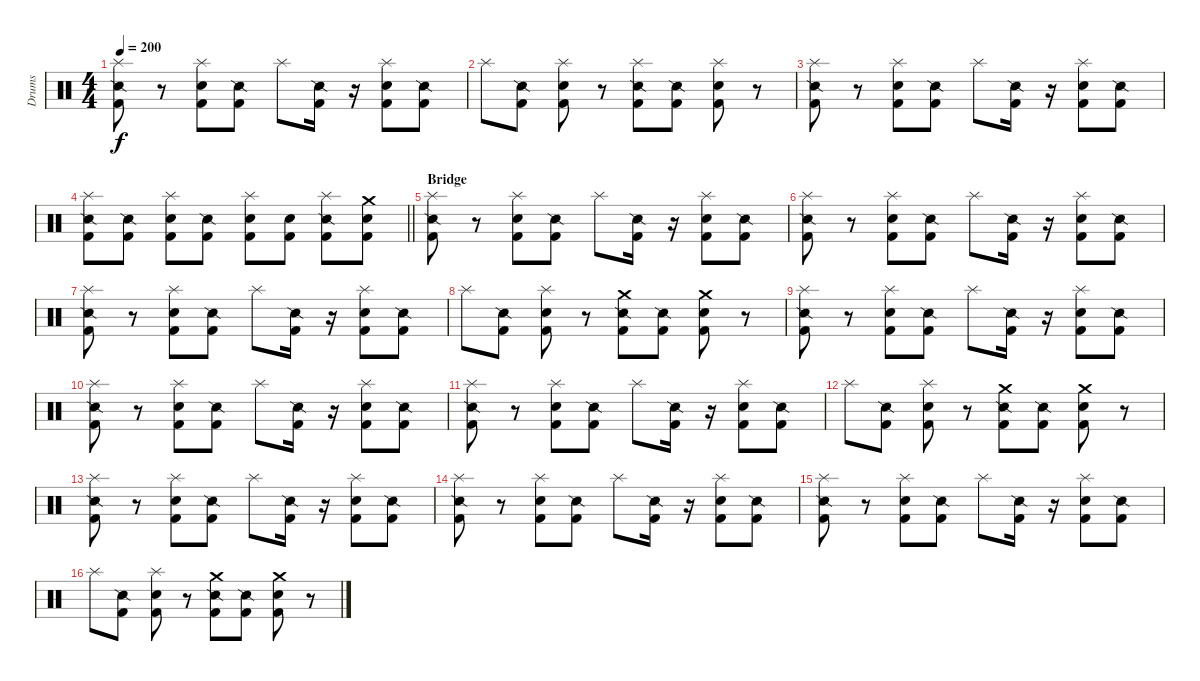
\track ("Drums" "Drums") {instrument percussion}
\staff {score}
\articulation defaults
\ts (4 4)
\tempo 200
\clef neutral
\ks c
("Splash (hit)" "Snare (side stick) 2" "Kick (hit) 2").8{dy f} r.8 ("Splash (hit)" "Snare (hit) 2" "Kick (hit) 2").8 ("Snare (side stick) 2" "Kick (hit) 2").8 "Splash (hit)".8 ("Snare (side stick) 2" "Kick (hit) 2").16 r.16 ("Splash (hit)" "Snare (hit) 2" "Kick (hit) 2").8 ("Snare (side stick) 2" "Kick (hit) 2").8 |
"Splash (hit)".8 ("Snare (side stick) 2" "Kick (hit) 2").8 ("Splash (hit)" "Snare (hit) 2" "Kick (hit) 2").8 r.8 ("Splash (hit)" "Snare (side stick) 2" "Kick (hit) 2").8 ("Snare (side stick) 2" "Kick (hit) 2").8 ("Splash (hit)" "Snare (hit) 2" "Kick (hit) 2").8 r.8 |
("Splash (hit)" "Snare (side stick) 2" "Kick (hit) 2").8 r.8 ("Splash (hit)" "Snare (hit) 2" "Kick (hit) 2").8 ("Snare (side stick) 2" "Kick (hit) 2").8 "Splash (hit)".8 ("Snare (side stick) 2" "Kick (hit) 2").16 r.16 ("Splash (hit)" "Snare (hit) 2" "Kick (hit) 2").8 ("Snare (side stick) 2" "Kick (hit) 2").8 |
\barLineRight lightlight
("Splash (hit)" "Snare (side stick) 2" "Kick (hit) 2").8 ("Snare (side stick) 2" "Kick (hit) 2").8 ("Splash (hit)" "Kick (hit) 2" "Snare (hit) 2").8 ("Snare (side stick) 2" "Kick (hit) 2").8 ("Splash (hit)" "Snare (hit) 2" "Kick (hit) 2").8 ("Snare (hit) 2" "Kick (hit) 2").8 ("Splash (hit)" "Snare (side stick) 2" "Kick (hit) 2").8 ("Crash medium (hit)" "Snare (hit) 2" "Kick (hit) 2").8 |
\section ("" "Bridge")
("Splash (hit)" "Snare (side stick) 2" "Kick (hit) 2").8 r.8 ("Splash (hit)" "Snare (hit) 2" "Kick (hit) 2").8 ("Snare (side stick) 2" "Kick (hit) 2").8 "Splash (hit)".8 ("Snare (side stick) 2" "Kick (hit) 2").16 r.16 ("Splash (hit)" "Snare (hit) 2" "Kick (hit) 2").8 ("Snare (side stick) 2" "Kick (hit) 2").8 |
("Splash (hit)" "Snare (side stick) 2" "Kick (hit) 2").8 r.8 ("Splash (hit)" "Snare (hit) 2" "Kick (hit) 2").8 ("Snare (side stick) 2" "Kick (hit) 2").8 "Splash (hit)".8 ("Snare (side stick) 2" "Kick (hit) 2").16 r.16 ("Splash (hit)" "Snare (hit) 2" "Kick (hit) 2").8 ("Snare (side stick) 2" "Kick (hit) 2").8 |
("Splash (hit)" "Snare (side stick) 2" "Kick (hit) 2").8 r.8 ("Splash (hit)" "Snare (hit) 2" "Kick (hit) 2").8 ("Snare (side stick) 2" "Kick (hit) 2").8 "Splash (hit)".8 ("Snare (side stick) 2" "Kick (hit) 2").16 r.16 ("Splash (hit)" "Snare (hit) 2" "Kick (hit) 2").8 ("Snare (side stick) 2" "Kick (hit) 2").8 |
"Splash (hit)".8 ("Snare (side stick) 2" "Kick (hit) 2").8 ("Splash (hit)" "Snare (hit) 2" "Kick (hit) 2").8 r.8 ("Crash medium (hit)" "Snare (side stick) 2" "Kick (hit) 2").8 ("Snare (side stick) 2" "Kick (hit) 2").8 ("Crash medium (hit)" "Snare (hit) 2" "Kick (hit) 2").8 r.8 |
("Splash (hit)" "Snare (side stick) 2" "Kick (hit) 2").8 r.8 ("Splash (hit)" "Snare (hit) 2" "Kick (hit) 2").8 ("Snare (side stick) 2" "Kick (hit) 2").8 "Splash (hit)".8 ("Snare (side stick) 2" "Kick (hit) 2").16 r.16 ("Splash (hit)" "Snare (hit) 2" "Kick (hit) 2").8 ("Snare (side stick) 2" "Kick (hit) 2").8 |
("Splash (hit)" "Snare (side stick) 2" "Kick (hit) 2").8 r.8 ("Splash (hit)" "Snare (hit) 2" "Kick (hit) 2").8 ("Snare (side stick) 2" "Kick (hit) 2").8 "Splash (hit)".8 ("Snare (side stick) 2" "Kick (hit) 2").16 r.16 ("Splash (hit)" "Snare (hit) 2" "Kick (hit) 2").8 ("Snare (side stick) 2" "Kick (hit) 2").8 |
("Splash (hit)" "Snare (side stick) 2" "Kick (hit) 2").8 r.8 ("Splash (hit)" "Snare (hit) 2" "Kick (hit) 2").8 ("Snare (side stick) 2" "Kick (hit) 2").8 "Splash (hit)".8 ("Snare (side stick) 2" "Kick (hit) 2").16 r.16 ("Splash (hit)" "Snare (hit) 2" "Kick (hit) 2").8 ("Snare (side stick) 2" "Kick (hit) 2").8 |
"Splash (hit)".8 ("Snare (side stick) 2" "Kick (hit) 2").8 ("Splash (hit)" "Snare (hit) 2" "Kick (hit) 2").8 r.8 ("Crash medium (hit)" "Snare (side stick) 2" "Kick (hit) 2").8 ("Snare (side stick) 2" "Kick (hit) 2").8 ("Crash medium (hit)" "Snare (hit) 2" "Kick (hit) 2").8 r.8 |
("Splash (hit)" "Snare (side stick) 2" "Kick (hit) 2").8 r.8 ("Splash (hit)" "Snare (hit) 2" "Kick (hit) 2").8 ("Snare (side stick) 2" "Kick (hit) 2").8 "Splash (hit)".8 ("Snare (side stick) 2" "Kick (hit) 2").16 r.16 ("Splash (hit)" "Snare (hit) 2" "Kick (hit) 2").8 ("Snare (side stick) 2" "Kick (hit) 2").8 |
("Splash (hit)" "Snare (side stick) 2" "Kick (hit) 2").8 r.8 ("Splash (hit)" "Snare (hit) 2" "Kick (hit) 2").8 ("Snare (side stick) 2" "Kick (hit) 2").8 "Splash (hit)".8 ("Snare (side stick) 2" "Kick (hit) 2").16 r.16 ("Splash (hit)" "Snare (hit) 2" "Kick (hit) 2").8 ("Snare (side stick) 2" "Kick (hit) 2").8 |
("Splash (hit)" "Snare (side stick) 2" "Kick (hit) 2").8 r.8 ("Splash (hit)" "Snare (hit) 2" "Kick (hit) 2").8 ("Snare (side stick) 2" "Kick (hit) 2").8 "Splash (hit)".8 ("Snare (side stick) 2" "Kick (hit) 2").16 r.16 ("Splash (hit)" "Snare (hit) 2" "Kick (hit) 2").8 ("Snare (side stick) 2" "Kick (hit) 2").8 |
"Splash (hit)".8 ("Snare (side stick) 2" "Kick (hit) 2").8 ("Splash (hit)" "Snare (hit) 2" "Kick (hit) 2").8 r.8 ("Crash medium (hit)" "Snare (side stick) 2" "Kick (hit) 2").8 ("Snare (side stick) 2" "Kick (hit) 2").8 ("Crash medium (hit)" "Snare (hit) 2" "Kick (hit) 2").8 r.8
